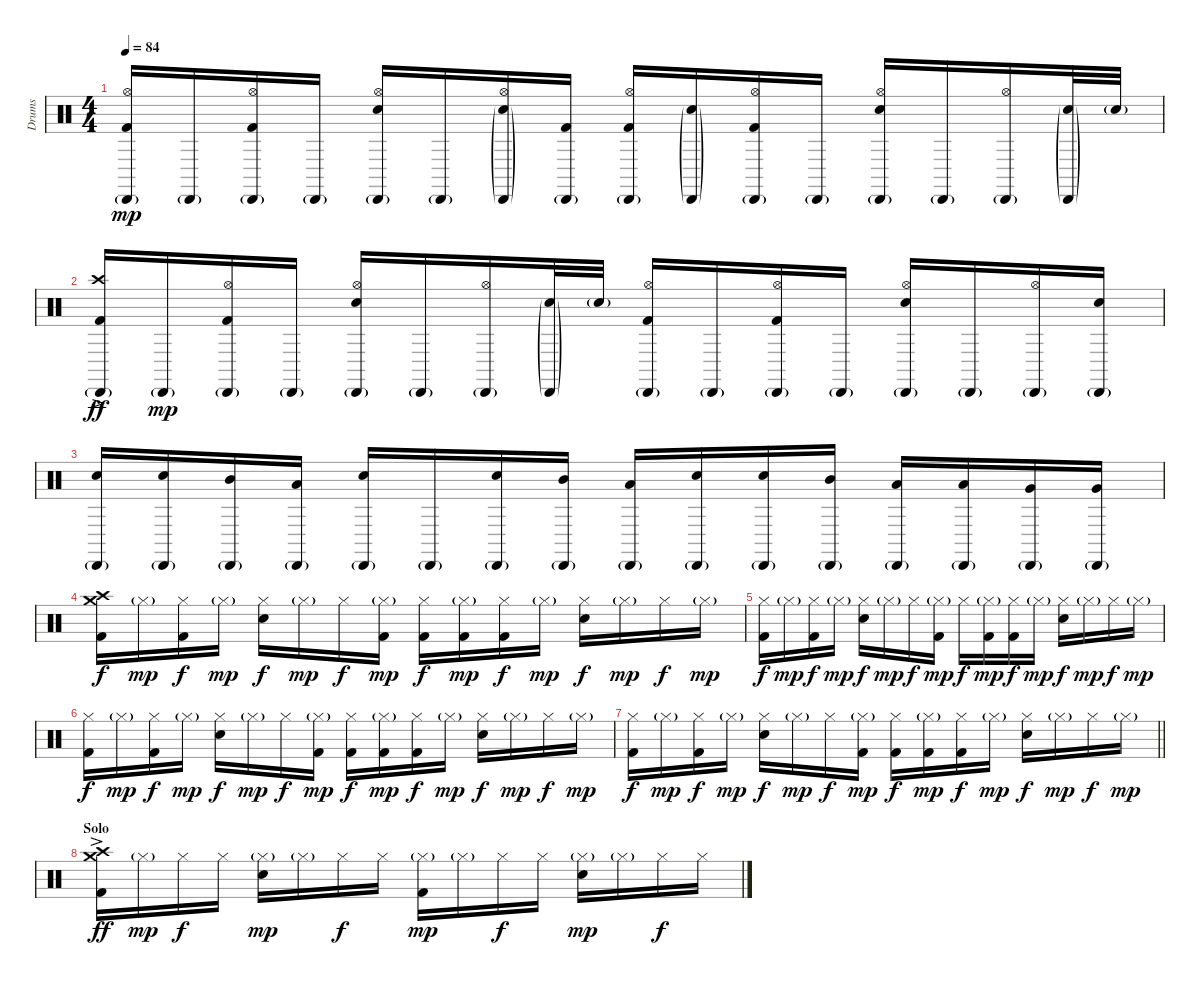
\track ("Drums" "Drums") {instrument percussion}
\staff {score}
\articulation defaults
\ts (4 4)
\tempo 84
\clef neutral
\ks c
("Hi-Hat (open)" "Cabasa (hit)"{g} "Kick (hit) 2").16{dy mp} "Cabasa (hit)"{g}.16 ("Hi-Hat (open)" "Cabasa (hit)"{g} "Kick (hit) 2").16 "Cabasa (hit)"{g}.16 ("Hi-Hat (open)" "Cabasa (hit)"{g} "Electric Snare (hit)").16 "Cabasa (hit)"{g}.16 ("Hi-Hat (open)" "Cabasa (hit)"{g} "Electric Snare (hit)"{g}).16 ("Cabasa (hit)"{g} "Kick (hit) 2").16 ("Hi-Hat (open)" "Cabasa (hit)"{g} "Kick (hit) 2").16 ("Cabasa (hit)"{g} "Electric Snare (hit)"{g}).16 ("Hi-Hat (open)" "Cabasa (hit)"{g} "Kick (hit) 2").16 "Cabasa (hit)"{g}.16 ("Hi-Hat (open)" "Cabasa (hit)"{g} "Electric Snare (hit)").16 "Cabasa (hit)"{g}.16 ("Hi-Hat (open)" "Cabasa (hit)"{g}).16 ("Cabasa (hit)"{g} "Electric Snare (hit)"{g}).32 "Electric Snare (hit)"{g}.32 |
("Crash high (hit)" "Cabasa (hit)"{g} "Kick (hit) 2"{ac}).16{dy ff} "Cabasa (hit)"{g}.16{dy mp} ("Hi-Hat (open)" "Cabasa (hit)"{g} "Kick (hit) 2").16 "Cabasa (hit)"{g}.16 ("Hi-Hat (open)" "Cabasa (hit)"{g} "Electric Snare (hit)").16 "Cabasa (hit)"{g}.16 ("Hi-Hat (open)" "Cabasa (hit)"{g}).16 ("Cabasa (hit)"{g} "Electric Snare (hit)"{g}).32 "Electric Snare (hit)"{g}.32 ("Hi-Hat (open)" "Cabasa (hit)"{g} "Kick (hit) 2").16{volume 16} "Cabasa (hit)"{g}.16 ("Hi-Hat (open)" "Cabasa (hit)"{g} "Kick (hit) 2").16 "Cabasa (hit)"{g}.16 ("Hi-Hat (open)" "Cabasa (hit)"{g} "Electric Snare (hit)").16 "Cabasa (hit)"{g}.16 ("Hi-Hat (open)" "Cabasa (hit)"{g}).16 ("Cabasa (hit)"{g} "Electric Snare (hit)").16 |
("Cabasa (hit)"{g} "Electric Snare (hit)").16 ("Cabasa (hit)"{g} "Electric Snare (hit)").16 ("Cabasa (hit)"{g} "Mid Tom (hit)").16 ("Cabasa (hit)"{g} "Low Tom (hit)").16 ("Cabasa (hit)"{g} "Electric Snare (hit)").16 "Cabasa (hit)"{g}.16 ("Cabasa (hit)"{g} "Electric Snare (hit)").16 ("Cabasa (hit)"{g} "Mid Tom (hit)").16 ("Cabasa (hit)"{g} "Low Tom (hit)").16 ("Cabasa (hit)"{g} "Electric Snare (hit)").16 ("Cabasa (hit)"{g} "Electric Snare (hit)").16 ("Cabasa (hit)"{g} "Mid Tom (hit)").16 ("Cabasa (hit)"{g} "Low Tom (hit)").16 ("Cabasa (hit)"{g} "Low Tom (hit)").16 ("Cabasa (hit)"{g} "Very Low Tom (hit)").16 ("Cabasa (hit)"{g} "Very Low Tom (hit)").16 |
("Crash high (hit)" "Crash medium (hit)" "Kick (hit) 2").16{dy f volume 14} "Hi-Hat (closed)"{g}.16{dy mp} ("Hi-Hat (closed)" "Kick (hit) 2").16{dy f} "Hi-Hat (closed)"{g}.16{dy mp} ("Hi-Hat (closed)" "Snare (hit) 2").16{dy f} "Hi-Hat (closed)"{g}.16{dy mp} "Hi-Hat (closed)".16{dy f} ("Hi-Hat (closed)"{g} "Kick (hit) 2").16{dy mp} ("Hi-Hat (closed)" "Kick (hit) 2").16{dy f} ("Hi-Hat (closed)"{g} "Kick (hit) 2").16{dy mp} ("Hi-Hat (closed)" "Kick (hit) 2").16{dy f} "Hi-Hat (closed)"{g}.16{dy mp} ("Hi-Hat (closed)" "Snare (hit) 2").16{dy f} "Hi-Hat (closed)"{g}.16{dy mp} "Hi-Hat (closed)".16{dy f} "Hi-Hat (closed)"{g}.16{dy mp} |
("Hi-Hat (closed)" "Kick (hit) 2").16{dy f} "Hi-Hat (closed)"{g}.16{dy mp} ("Hi-Hat (closed)" "Kick (hit) 2").16{dy f} "Hi-Hat (closed)"{g}.16{dy mp} ("Hi-Hat (closed)" "Snare (hit) 2").16{dy f} "Hi-Hat (closed)"{g}.16{dy mp} "Hi-Hat (closed)".16{dy f} ("Hi-Hat (closed)"{g} "Kick (hit) 2").16{dy mp} "Hi-Hat (closed)".16{dy f} ("Hi-Hat (closed)"{g} "Kick (hit) 2").16{dy mp} ("Hi-Hat (closed)" "Kick (hit) 2").16{dy f} "Hi-Hat (closed)"{g}.16{dy mp} ("Hi-Hat (closed)" "Snare (hit) 2").16{dy f} "Hi-Hat (closed)"{g}.16{dy mp} "Hi-Hat (closed)".16{dy f} "Hi-Hat (closed)"{g}.16{dy mp} |
("Hi-Hat (closed)" "Kick (hit) 2").16{dy f} "Hi-Hat (closed)"{g}.16{dy mp} ("Hi-Hat (closed)" "Kick (hit) 2").16{dy f} "Hi-Hat (closed)"{g}.16{dy mp} ("Hi-Hat (closed)" "Snare (hit) 2").16{dy f} "Hi-Hat (closed)"{g}.16{dy mp} "Hi-Hat (closed)".16{dy f} ("Hi-Hat (closed)"{g} "Kick (hit) 2").16{dy mp} ("Hi-Hat (closed)" "Kick (hit) 2").16{dy f} ("Hi-Hat (closed)"{g} "Kick (hit) 2").16{dy mp} ("Hi-Hat (closed)" "Kick (hit) 2").16{dy f} "Hi-Hat (closed)"{g}.16{dy mp} ("Hi-Hat (closed)" "Snare (hit) 2").16{dy f} "Hi-Hat (closed)"{g}.16{dy mp} "Hi-Hat (closed)".16{dy f} "Hi-Hat (closed)"{g}.16{dy mp} |
\barLineRight lightlight
("Hi-Hat (closed)" "Kick (hit) 2").16{dy f} "Hi-Hat (closed)"{g}.16{dy mp} ("Hi-Hat (closed)" "Kick (hit) 2").16{dy f} "Hi-Hat (closed)"{g}.16{dy mp} ("Hi-Hat (closed)" "Snare (hit) 2").16{dy f} "Hi-Hat (closed)"{g}.16{dy mp} "Hi-Hat (closed)".16{dy f} ("Hi-Hat (closed)"{g} "Kick (hit) 2").16{dy mp} ("Hi-Hat (closed)" "Kick (hit) 2").16{dy f} ("Hi-Hat (closed)"{g} "Kick (hit) 2").16{dy mp} ("Hi-Hat (closed)" "Kick (hit) 2").16{dy f} "Hi-Hat (closed)"{g}.16{dy mp} ("Hi-Hat (closed)" "Snare (hit) 2").16{dy f} "Hi-Hat (closed)"{g}.16{dy mp} "Hi-Hat (closed)".16{dy f} "Hi-Hat (closed)"{g}.16{dy mp} |
\section ("" "Solo")
("Crash high (hit)" "Crash medium (hit)" "Kick (hit) 2"{ac}).16{dy ff} "Hi-Hat (closed)"{g}.16{dy mp} "Hi-Hat (closed)".16{dy f} "Hi-Hat (closed)".16 ("Hi-Hat (closed)"{g} "Snare (hit) 2").16{dy mp} "Hi-Hat (closed)"{g}.16 "Hi-Hat (closed)".16{dy f} "Hi-Hat (closed)".16 ("Hi-Hat (closed)"{g} "Kick (hit) 2").16{dy mp} "Hi-Hat (closed)"{g}.16 "Hi-Hat (closed)".16{dy f} "Hi-Hat (closed)".16 ("Hi-Hat (closed)"{g} "Snare (hit) 2").16{dy mp} "Hi-Hat (closed)"{g}.16 "Hi-Hat (closed)".16{dy f} "Hi-Hat (closed)".16
